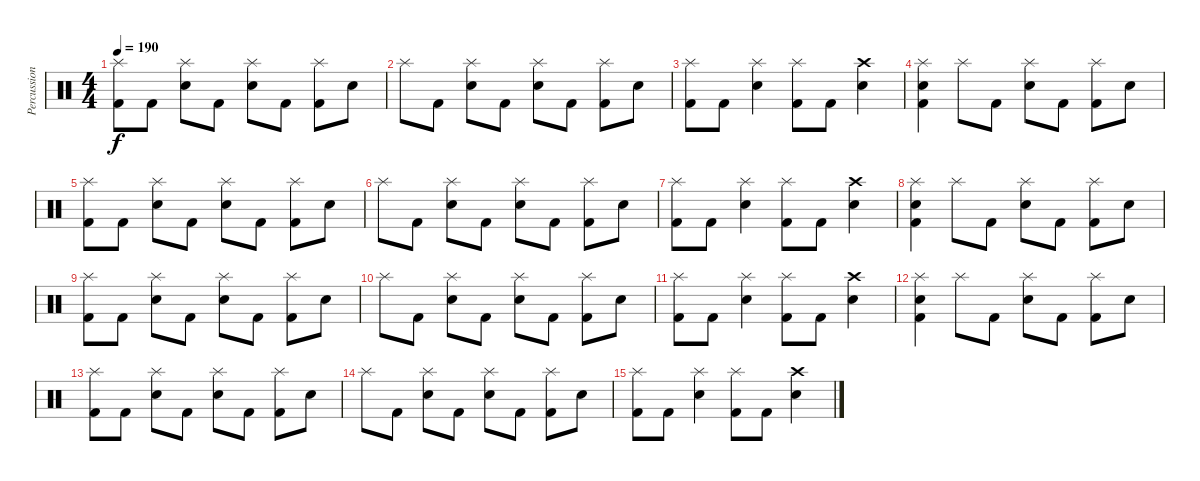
\track ("Percussion" "Percussion") {instrument percussion}
\staff {score}
\articulation defaults
\ts (4 4)
\tempo 190
\clef neutral
\ks c
("Splash (hit)" "Kick (hit) 2").8{dy f} "Kick (hit) 2".8 ("Splash (hit)" "Electric Snare (hit)").8 "Kick (hit) 2".8 ("Splash (hit)" "Electric Snare (hit)").8 "Kick (hit) 2".8 ("Splash (hit)" "Kick (hit) 2").8 "Electric Snare (hit)".8 |
"Splash (hit)".8 "Kick (hit) 2".8 ("Splash (hit)" "Electric Snare (hit)").8 "Kick (hit) 2".8 ("Splash (hit)" "Electric Snare (hit)").8 "Kick (hit) 2".8 ("Splash (hit)" "Kick (hit) 2").8 "Electric Snare (hit)".8 |
("Splash (hit)" "Kick (hit) 2").8 "Kick (hit) 2".8 ("Splash (hit)" "Electric Snare (hit)").4 ("Splash (hit)" "Kick (hit) 2").8 "Kick (hit) 2".8 ("Crash high (hit)" "Electric Snare (hit)").4 |
("Splash (hit)" "Electric Snare (hit)" "Kick (hit) 2").4 "Splash (hit)".8 "Kick (hit) 2".8 ("Splash (hit)" "Electric Snare (hit)").8 "Kick (hit) 2".8 ("Splash (hit)" "Kick (hit) 2").8 "Electric Snare (hit)".8 |
("Splash (hit)" "Kick (hit) 2").8 "Kick (hit) 2".8 ("Splash (hit)" "Electric Snare (hit)").8 "Kick (hit) 2".8 ("Splash (hit)" "Electric Snare (hit)").8 "Kick (hit) 2".8 ("Splash (hit)" "Kick (hit) 2").8 "Electric Snare (hit)".8 |
"Splash (hit)".8 "Kick (hit) 2".8 ("Splash (hit)" "Electric Snare (hit)").8 "Kick (hit) 2".8 ("Splash (hit)" "Electric Snare (hit)").8 "Kick (hit) 2".8 ("Splash (hit)" "Kick (hit) 2").8 "Electric Snare (hit)".8 |
("Splash (hit)" "Kick (hit) 2").8 "Kick (hit) 2".8 ("Splash (hit)" "Electric Snare (hit)").4 ("Splash (hit)" "Kick (hit) 2").8 "Kick (hit) 2".8 ("Crash high (hit)" "Electric Snare (hit)").4 |
("Splash (hit)" "Electric Snare (hit)" "Kick (hit) 2").4 "Splash (hit)".8 "Kick (hit) 2".8 ("Splash (hit)" "Electric Snare (hit)").8 "Kick (hit) 2".8 ("Splash (hit)" "Kick (hit) 2").8 "Electric Snare (hit)".8 |
("Splash (hit)" "Kick (hit) 2").8 "Kick (hit) 2".8 ("Splash (hit)" "Electric Snare (hit)").8 "Kick (hit) 2".8 ("Splash (hit)" "Electric Snare (hit)").8 "Kick (hit) 2".8 ("Splash (hit)" "Kick (hit) 2").8 "Electric Snare (hit)".8 |
"Splash (hit)".8 "Kick (hit) 2".8 ("Splash (hit)" "Electric Snare (hit)").8 "Kick (hit) 2".8 ("Splash (hit)" "Electric Snare (hit)").8 "Kick (hit) 2".8 ("Splash (hit)" "Kick (hit) 2").8 "Electric Snare (hit)".8 |
("Splash (hit)" "Kick (hit) 2").8 "Kick (hit) 2".8 ("Splash (hit)" "Electric Snare (hit)").4 ("Splash (hit)" "Kick (hit) 2").8 "Kick (hit) 2".8 ("Crash high (hit)" "Electric Snare (hit)").4 |
("Splash (hit)" "Electric Snare (hit)" "Kick (hit) 2").4 "Splash (hit)".8 "Kick (hit) 2".8 ("Splash (hit)" "Electric Snare (hit)").8 "Kick (hit) 2".8 ("Splash (hit)" "Kick (hit) 2").8 "Electric Snare (hit)".8 |
("Splash (hit)" "Kick (hit) 2").8 "Kick (hit) 2".8 ("Splash (hit)" "Electric Snare (hit)").8 "Kick (hit) 2".8 ("Splash (hit)" "Electric Snare (hit)").8 "Kick (hit) 2".8 ("Splash (hit)" "Kick (hit) 2").8 "Electric Snare (hit)".8 |
"Splash (hit)".8 "Kick (hit) 2".8 ("Splash (hit)" "Electric Snare (hit)").8 "Kick (hit) 2".8 ("Splash (hit)" "Electric Snare (hit)").8 "Kick (hit) 2".8 ("Splash (hit)" "Kick (hit) 2").8 "Electric Snare (hit)".8 |
("Splash (hit)" "Kick (hit) 2").8 "Kick (hit) 2".8 ("Splash (hit)" "Electric Snare (hit)").4 ("Splash (hit)" "Kick (hit) 2").8 "Kick (hit) 2".8 ("Crash high (hit)" "Electric Snare (hit)").4
